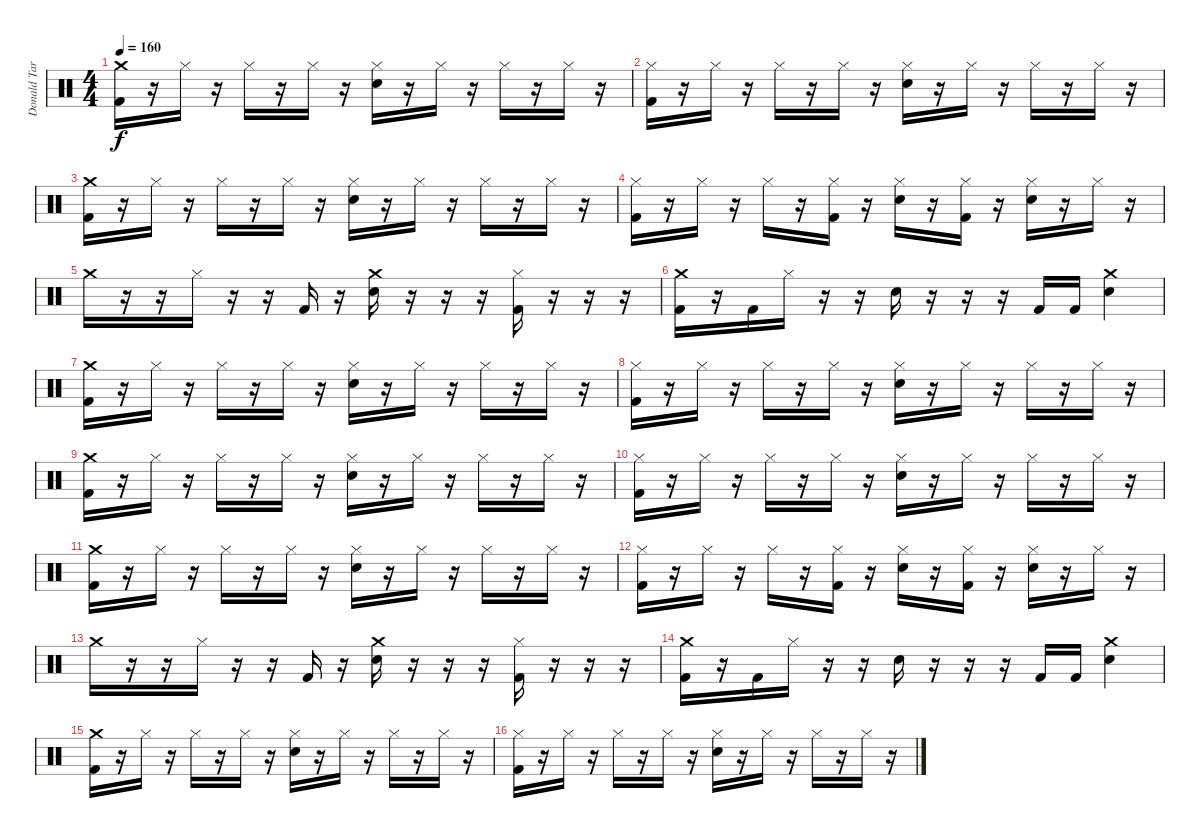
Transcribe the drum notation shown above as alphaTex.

\track ("Donald Tardy" "Donald Tar") {instrument percussion}
\staff {score}
\articulation defaults
\ts (4 4)
\tempo 160
\clef neutral
\ks c
("Crash medium (hit)" "Kick (hit) 2").16{dy f} r.16 "Hi-Hat (closed)".16 r.16 "Hi-Hat (closed)".16 r.16 "Hi-Hat (closed)".16 r.16 ("Hi-Hat (closed)" "Electric Snare (hit)").16 r.16 "Hi-Hat (closed)".16 r.16 "Hi-Hat (closed)".16 r.16 "Hi-Hat (closed)".16 r.16 |
("Hi-Hat (closed)" "Kick (hit) 2").16 r.16 "Hi-Hat (closed)".16 r.16 "Hi-Hat (closed)".16 r.16 "Hi-Hat (closed)".16 r.16 ("Hi-Hat (closed)" "Electric Snare (hit)").16 r.16 "Hi-Hat (closed)".16 r.16 "Hi-Hat (closed)".16 r.16 "Hi-Hat (closed)".16 r.16 |
("Crash medium (hit)" "Kick (hit) 2").16 r.16 "Hi-Hat (closed)".16 r.16 "Hi-Hat (closed)".16 r.16 "Hi-Hat (closed)".16 r.16 ("Hi-Hat (closed)" "Electric Snare (hit)").16 r.16 "Hi-Hat (closed)".16 r.16 "Hi-Hat (closed)".16 r.16 "Hi-Hat (closed)".16 r.16 |
("Hi-Hat (closed)" "Kick (hit) 2").16 r.16 "Hi-Hat (closed)".16 r.16 "Hi-Hat (closed)".16 r.16 ("Hi-Hat (closed)" "Kick (hit) 2").16 r.16 ("Hi-Hat (closed)" "Electric Snare (hit)").16 r.16 ("Hi-Hat (closed)" "Kick (hit) 2").16 r.16 ("Hi-Hat (closed)" "Electric Snare (hit)").16 r.16 "Hi-Hat (closed)".16 r.16 |
"Crash medium (hit)".16 r.16 r.16 "Hi-Hat (closed)".16 r.16 r.16 "Kick (hit) 2".16 r.16 ("Crash medium (hit)" "Electric Snare (hit)").16 r.16 r.16 r.16 ("Hi-Hat (closed)" "Kick (hit) 2").16 r.16 r.16 r.16 |
("Crash medium (hit)" "Kick (hit) 2").16 r.16 "Kick (hit) 2".16 "Hi-Hat (closed)".16 r.16 r.16 "Electric Snare (hit)".16 r.16 r.16 r.16 "Kick (hit) 2".16 "Kick (hit) 2".16 ("Crash medium (hit)" "Electric Snare (hit)").4 |
("Crash medium (hit)" "Kick (hit) 2").16 r.16 "Hi-Hat (closed)".16 r.16 "Hi-Hat (closed)".16 r.16 "Hi-Hat (closed)".16 r.16 ("Hi-Hat (closed)" "Electric Snare (hit)").16 r.16 "Hi-Hat (closed)".16 r.16 "Hi-Hat (closed)".16 r.16 "Hi-Hat (closed)".16 r.16 |
("Hi-Hat (closed)" "Kick (hit) 2").16 r.16 "Hi-Hat (closed)".16 r.16 "Hi-Hat (closed)".16 r.16 "Hi-Hat (closed)".16 r.16 ("Hi-Hat (closed)" "Electric Snare (hit)").16 r.16 "Hi-Hat (closed)".16 r.16 "Hi-Hat (closed)".16 r.16 "Hi-Hat (closed)".16 r.16 |
("Crash medium (hit)" "Kick (hit) 2").16 r.16 "Hi-Hat (closed)".16 r.16 "Hi-Hat (closed)".16 r.16 "Hi-Hat (closed)".16 r.16 ("Hi-Hat (closed)" "Electric Snare (hit)").16 r.16 "Hi-Hat (closed)".16 r.16 "Hi-Hat (closed)".16 r.16 "Hi-Hat (closed)".16 r.16 |
("Hi-Hat (closed)" "Kick (hit) 2").16 r.16 "Hi-Hat (closed)".16 r.16 "Hi-Hat (closed)".16 r.16 "Hi-Hat (closed)".16 r.16 ("Hi-Hat (closed)" "Electric Snare (hit)").16 r.16 "Hi-Hat (closed)".16 r.16 "Hi-Hat (closed)".16 r.16 "Hi-Hat (closed)".16 r.16 |
("Crash medium (hit)" "Kick (hit) 2").16 r.16 "Hi-Hat (closed)".16 r.16 "Hi-Hat (closed)".16 r.16 "Hi-Hat (closed)".16 r.16 ("Hi-Hat (closed)" "Electric Snare (hit)").16 r.16 "Hi-Hat (closed)".16 r.16 "Hi-Hat (closed)".16 r.16 "Hi-Hat (closed)".16 r.16 |
("Hi-Hat (closed)" "Kick (hit) 2").16 r.16 "Hi-Hat (closed)".16 r.16 "Hi-Hat (closed)".16 r.16 ("Hi-Hat (closed)" "Kick (hit) 2").16 r.16 ("Hi-Hat (closed)" "Electric Snare (hit)").16 r.16 ("Hi-Hat (closed)" "Kick (hit) 2").16 r.16 ("Hi-Hat (closed)" "Electric Snare (hit)").16 r.16 "Hi-Hat (closed)".16 r.16 |
"Crash medium (hit)".16 r.16 r.16 "Hi-Hat (closed)".16 r.16 r.16 "Kick (hit) 2".16 r.16 ("Crash medium (hit)" "Electric Snare (hit)").16 r.16 r.16 r.16 ("Hi-Hat (closed)" "Kick (hit) 2").16 r.16 r.16 r.16 |
("Crash medium (hit)" "Kick (hit) 2").16 r.16 "Kick (hit) 2".16 "Hi-Hat (closed)".16 r.16 r.16 "Electric Snare (hit)".16 r.16 r.16 r.16 "Kick (hit) 2".16 "Kick (hit) 2".16 ("Crash medium (hit)" "Electric Snare (hit)").4 |
("Crash medium (hit)" "Kick (hit) 2").16 r.16 "Hi-Hat (closed)".16 r.16 "Hi-Hat (closed)".16 r.16 "Hi-Hat (closed)".16 r.16 ("Hi-Hat (closed)" "Electric Snare (hit)").16 r.16 "Hi-Hat (closed)".16 r.16 "Hi-Hat (closed)".16 r.16 "Hi-Hat (closed)".16 r.16 |
("Hi-Hat (closed)" "Kick (hit) 2").16 r.16 "Hi-Hat (closed)".16 r.16 "Hi-Hat (closed)".16 r.16 "Hi-Hat (closed)".16 r.16 ("Hi-Hat (closed)" "Electric Snare (hit)").16 r.16 "Hi-Hat (closed)".16 r.16 "Hi-Hat (closed)".16 r.16 "Hi-Hat (closed)".16 r.16
